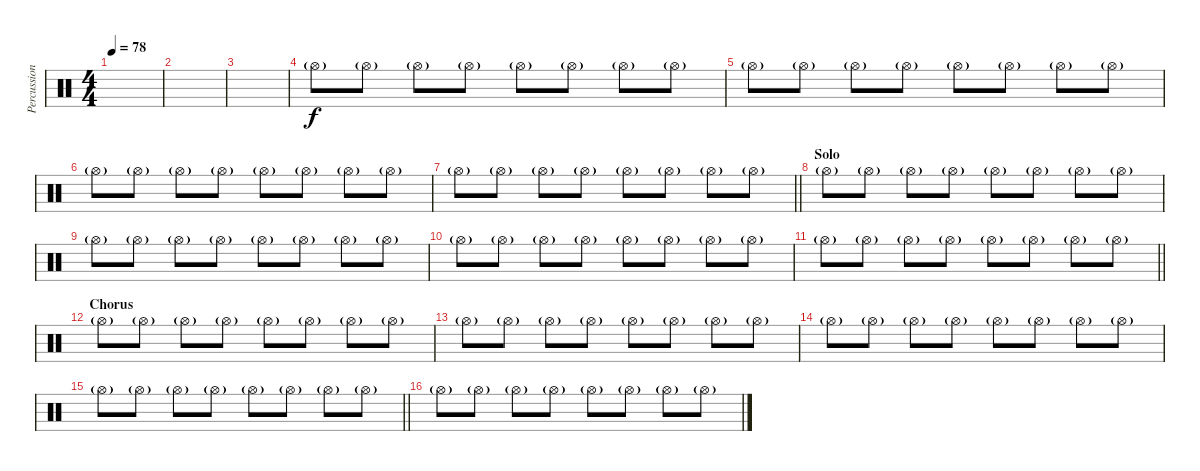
\track ("Percussion" "Percussion") {instrument percussion}
\staff {score}
\articulation defaults
\ts (4 4)
\tempo 78
\clef neutral
\ks c
|
|
|
"Hi-Hat (open)"{g}.8 "Hi-Hat (open)"{g}.8 "Hi-Hat (open)"{g}.8 "Hi-Hat (open)"{g}.8 "Hi-Hat (open)"{g}.8 "Hi-Hat (open)"{g}.8 "Hi-Hat (open)"{g}.8 "Hi-Hat (open)"{g}.8 |
"Hi-Hat (open)"{g}.8 "Hi-Hat (open)"{g}.8 "Hi-Hat (open)"{g}.8 "Hi-Hat (open)"{g}.8 "Hi-Hat (open)"{g}.8 "Hi-Hat (open)"{g}.8 "Hi-Hat (open)"{g}.8 "Hi-Hat (open)"{g}.8 |
"Hi-Hat (open)"{g}.8 "Hi-Hat (open)"{g}.8 "Hi-Hat (open)"{g}.8 "Hi-Hat (open)"{g}.8 "Hi-Hat (open)"{g}.8 "Hi-Hat (open)"{g}.8 "Hi-Hat (open)"{g}.8 "Hi-Hat (open)"{g}.8 |
\barLineRight lightlight "Hi-Hat (open)"{g}.8 "Hi-Hat (open)"{g}.8 "Hi-Hat (open)"{g}.8 "Hi-Hat (open)"{g}.8 "Hi-Hat (open)"{g}.8 "Hi-Hat (open)"{g}.8 "Hi-Hat (open)"{g}.8 "Hi-Hat (open)"{g}.8
|
\section ("" "Solo")
"Hi-Hat (open)"{g}.8 "Hi-Hat (open)"{g}.8 "Hi-Hat (open)"{g}.8 "Hi-Hat (open)"{g}.8 "Hi-Hat (open)"{g}.8 "Hi-Hat (open)"{g}.8 "Hi-Hat (open)"{g}.8 "Hi-Hat (open)"{g}.8 |
"Hi-Hat (open)"{g}.8 "Hi-Hat (open)"{g}.8 "Hi-Hat (open)"{g}.8 "Hi-Hat (open)"{g}.8 "Hi-Hat (open)"{g}.8 "Hi-Hat (open)"{g}.8 "Hi-Hat (open)"{g}.8 "Hi-Hat (open)"{g}.8 |
"Hi-Hat (open)"{g}.8 "Hi-Hat (open)"{g}.8 "Hi-Hat (open)"{g}.8 "Hi-Hat (open)"{g}.8 "Hi-Hat (open)"{g}.8 "Hi-Hat (open)"{g}.8 "Hi-Hat (open)"{g}.8 "Hi-Hat (open)"{g}.8 |
\barLineRight lightlight "Hi-Hat (open)"{g}.8 "Hi-Hat (open)"{g}.8 "Hi-Hat (open)"{g}.8 "Hi-Hat (open)"{g}.8 "Hi-Hat (open)"{g}.8 "Hi-Hat (open)"{g}.8 "Hi-Hat (open)"{g}.8 "Hi-Hat (open)"{g}.8
|
\section ("" "Chorus")
"Hi-Hat (open)"{g}.8 "Hi-Hat (open)"{g}.8 "Hi-Hat (open)"{g}.8 "Hi-Hat (open)"{g}.8 "Hi-Hat (open)"{g}.8 "Hi-Hat (open)"{g}.8 "Hi-Hat (open)"{g}.8 "Hi-Hat (open)"{g}.8 |
"Hi-Hat (open)"{g}.8 "Hi-Hat (open)"{g}.8 "Hi-Hat (open)"{g}.8 "Hi-Hat (open)"{g}.8 "Hi-Hat (open)"{g}.8 "Hi-Hat (open)"{g}.8 "Hi-Hat (open)"{g}.8 "Hi-Hat (open)"{g}.8 |
"Hi-Hat (open)"{g}.8 "Hi-Hat (open)"{g}.8 "Hi-Hat (open)"{g}.8 "Hi-Hat (open)"{g}.8 "Hi-Hat (open)"{g}.8 "Hi-Hat (open)"{g}.8 "Hi-Hat (open)"{g}.8 "Hi-Hat (open)"{g}.8 |
\barLineRight lightlight "Hi-Hat (open)"{g}.8 "Hi-Hat (open)"{g}.8 "Hi-Hat (open)"{g}.8 "Hi-Hat (open)"{g}.8 "Hi-Hat (open)"{g}.8 "Hi-Hat (open)"{g}.8 "Hi-Hat (open)"{g}.8 "Hi-Hat (open)"{g}.8
|
"Hi-Hat (open)"{g}.8 "Hi-Hat (open)"{g}.8 "Hi-Hat (open)"{g}.8 "Hi-Hat (open)"{g}.8 "Hi-Hat (open)"{g}.8 "Hi-Hat (open)"{g}.8 "Hi-Hat (open)"{g}.8 "Hi-Hat (open)"{g}.8
